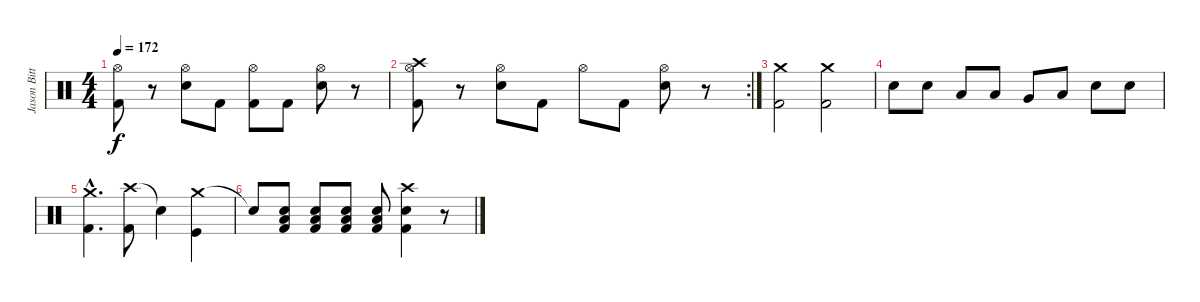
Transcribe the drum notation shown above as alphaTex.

\track ("Jason Bittner" "Jason Bitt") {instrument percussion}
\staff {score}
\articulation defaults
\ts (4 4)
\tempo 172
\clef neutral
\ks c
("Hi-Hat (open)" "Kick (hit) 2").8{dy f} r.8 ("Hi-Hat (open)" "Electric Snare (hit)").8 "Kick (hit) 2".8 ("Hi-Hat (open)" "Kick (hit) 2").8 "Kick (hit) 2".8 ("Hi-Hat (open)" "Electric Snare (hit)").8 r.8 |
\rc 2
("Crash high (hit)" "Hi-Hat (open)" "Kick (hit) 2").8 r.8 ("Hi-Hat (open)" "Electric Snare (hit)").8 "Kick (hit) 2".8 "Hi-Hat (open)".8 "Kick (hit) 2".8 ("Hi-Hat (open)" "Electric Snare (hit)").8 r.8 |
("Crash medium (hit)" "Kick (hit) 2").2 ("Crash medium (hit)" "Kick (hit) 2").2 |
"Electric Snare (hit)".8 "Electric Snare (hit)".8 "Low Tom (hit)".8 "Low Tom (hit)".8 "Very Low Tom (hit)".8 "Low Floor Tom (hit)".8 "Electric Snare (hit)".8 "Electric Snare (hit)".8 |
("Crash medium (hit)"{hac} "Kick (hit) 2"{hac}).4{d} ("Crash high (hit)" "Kick (hit) 2").8 "Snare (hit)"{t}.4 ("Crash medium (hit)" "Kick (hit)").4 |
"Electric Snare (hit)"{t}.8 ("Kick (hit) 2" "Electric Snare (hit)" "Low Floor Tom (hit)").8 ("Kick (hit) 2" "Electric Snare (hit)" "Low Floor Tom (hit)").8 ("Kick (hit) 2" "Electric Snare (hit)" "Low Floor Tom (hit)").8 ("Kick (hit) 2" "Electric Snare (hit)" "Low Floor Tom (hit)").8 ("Crash high (hit)" "Kick (hit) 2" "Electric Snare (hit)").4 r.8
